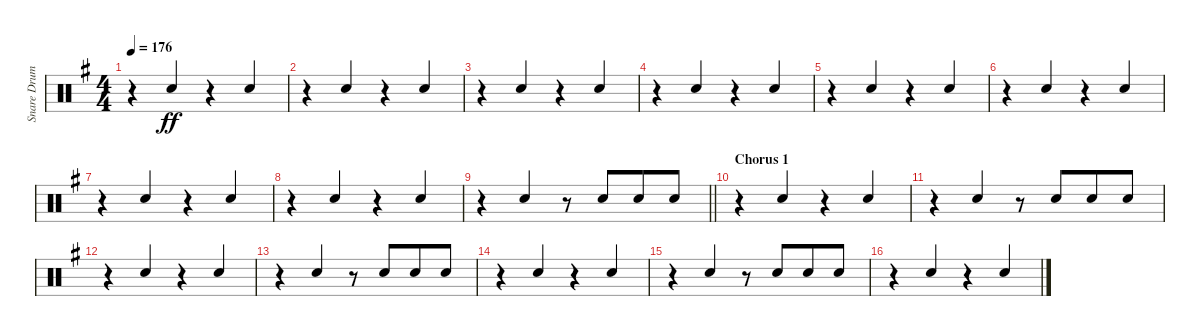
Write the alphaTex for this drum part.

\track ("Snare Drum" "Snare Drum") {instrument percussion}
\staff {score}
\articulation defaults
\ts (4 4)
\tempo 176
\clef neutral
\ks eminor
r.4{dy ff} "Electric Snare (hit)".4{beam Up} r.4 "Electric Snare (hit)".4{beam Up} |
r.4 "Electric Snare (hit)".4{beam Up} r.4 "Electric Snare (hit)".4{beam Up} |
r.4 "Electric Snare (hit)".4{beam Up} r.4 "Electric Snare (hit)".4{beam Up} |
r.4 "Electric Snare (hit)".4{beam Up} r.4 "Electric Snare (hit)".4{beam Up} |
r.4 "Electric Snare (hit)".4{beam Up} r.4 "Electric Snare (hit)".4{beam Up} |
r.4 "Electric Snare (hit)".4{beam Up} r.4 "Electric Snare (hit)".4{beam Up} |
r.4 "Electric Snare (hit)".4{beam Up} r.4 "Electric Snare (hit)".4{beam Up} |
r.4 "Electric Snare (hit)".4{beam Up} r.4 "Electric Snare (hit)".4{beam Up} |
\barLineRight lightlight
r.4 "Electric Snare (hit)".4{beam Up} r.8{beam Up beam merge} "Electric Snare (hit)".8{beam Up beam merge} "Electric Snare (hit)".8{beam Up} "Electric Snare (hit)".8{beam Up} |
\section ("" "Chorus 1")
r.4 "Electric Snare (hit)".4{beam Up} r.4 "Electric Snare (hit)".4{beam Up} |
r.4 "Electric Snare (hit)".4{beam Up} r.8 "Electric Snare (hit)".8{beam Up beam merge} "Electric Snare (hit)".8{beam Up} "Electric Snare (hit)".8{beam Up} |
r.4 "Electric Snare (hit)".4{beam Up} r.4 "Electric Snare (hit)".4{beam Up} |
r.4 "Electric Snare (hit)".4{beam Up} r.8 "Electric Snare (hit)".8{beam Up beam merge} "Electric Snare (hit)".8{beam Up} "Electric Snare (hit)".8{beam Up} |
r.4 "Electric Snare (hit)".4{beam Up} r.4 "Electric Snare (hit)".4{beam Up} |
r.4 "Electric Snare (hit)".4{beam Up} r.8 "Electric Snare (hit)".8{beam Up beam merge} "Electric Snare (hit)".8{beam Up} "Electric Snare (hit)".8{beam Up} |
r.4 "Electric Snare (hit)".4{beam Up} r.4 "Electric Snare (hit)".4{beam Up}
